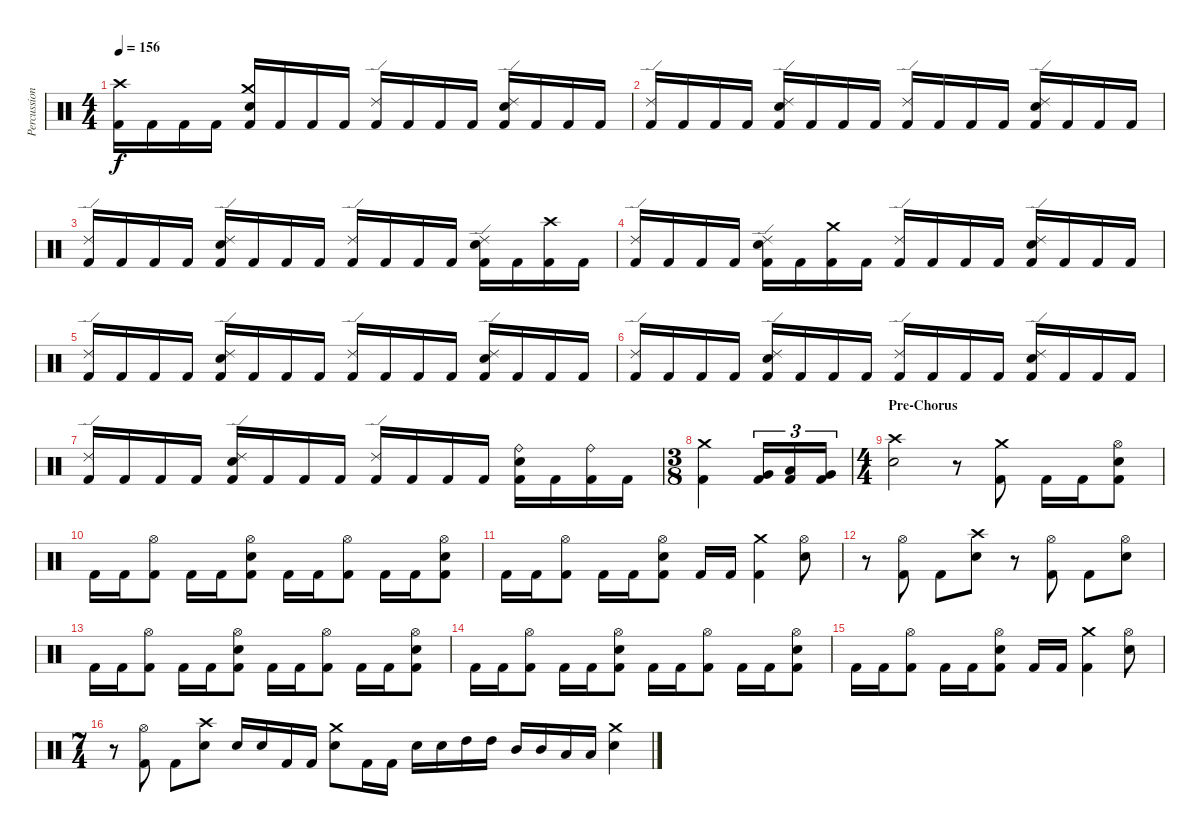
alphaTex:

\track ("Percussion" "Percussion") {instrument percussion}
\staff {score}
\articulation defaults
\ts (4 4)
\tempo 156
\clef neutral
\ks c
("Crash high (hit)" "Kick (hit) 2").16{dy f} "Kick (hit) 2".16 "Kick (hit) 2".16 "Kick (hit) 2".16 ("Crash medium (hit)" "Electric Snare (hit)" "Kick (hit) 2").16 "Kick (hit) 2".16 "Kick (hit) 2".16 "Kick (hit) 2".16 ("Ride (edge) 2" "Kick (hit) 2").16 "Kick (hit) 2".16 "Kick (hit) 2".16 "Kick (hit) 2".16 ("Ride (edge) 2" "Electric Snare (hit)" "Kick (hit) 2").16 "Kick (hit) 2".16 "Kick (hit) 2".16 "Kick (hit) 2".16 |
("Ride (edge) 2" "Kick (hit) 2").16 "Kick (hit) 2".16 "Kick (hit) 2".16 "Kick (hit) 2".16 ("Ride (edge) 2" "Electric Snare (hit)" "Kick (hit) 2").16 "Kick (hit) 2".16 "Kick (hit) 2".16 "Kick (hit) 2".16 ("Ride (edge) 2" "Kick (hit) 2").16 "Kick (hit) 2".16 "Kick (hit) 2".16 "Kick (hit) 2".16 ("Ride (edge) 2" "Electric Snare (hit)" "Kick (hit) 2").16 "Kick (hit) 2".16 "Kick (hit) 2".16 "Kick (hit) 2".16 |
("Ride (edge) 2" "Kick (hit) 2").16 "Kick (hit) 2".16 "Kick (hit) 2".16 "Kick (hit) 2".16 ("Ride (edge) 2" "Electric Snare (hit)" "Kick (hit) 2").16 "Kick (hit) 2".16 "Kick (hit) 2".16 "Kick (hit) 2".16 ("Ride (edge) 2" "Kick (hit) 2").16 "Kick (hit) 2".16 "Kick (hit) 2".16 "Kick (hit) 2".16 ("Ride (edge) 2" "Electric Snare (hit)" "Kick (hit) 2").16 "Kick (hit) 2".16 ("Crash high (hit)" "Kick (hit) 2").16 "Kick (hit) 2".16 |
("Ride (edge) 2" "Kick (hit) 2").16 "Kick (hit) 2".16 "Kick (hit) 2".16 "Kick (hit) 2".16 ("Ride (edge) 2" "Electric Snare (hit)" "Kick (hit) 2").16 "Kick (hit) 2".16 ("Crash medium (hit)" "Kick (hit) 2").16 "Kick (hit) 2".16 ("Ride (edge) 2" "Kick (hit) 2").16 "Kick (hit) 2".16 "Kick (hit) 2".16 "Kick (hit) 2".16 ("Ride (edge) 2" "Electric Snare (hit)" "Kick (hit) 2").16 "Kick (hit) 2".16 "Kick (hit) 2".16 "Kick (hit) 2".16 |
("Ride (edge) 2" "Kick (hit) 2").16 "Kick (hit) 2".16 "Kick (hit) 2".16 "Kick (hit) 2".16 ("Ride (edge) 2" "Electric Snare (hit)" "Kick (hit) 2").16 "Kick (hit) 2".16 "Kick (hit) 2".16 "Kick (hit) 2".16 ("Ride (edge) 2" "Kick (hit) 2").16 "Kick (hit) 2".16 "Kick (hit) 2".16 "Kick (hit) 2".16 ("Ride (edge) 2" "Electric Snare (hit)" "Kick (hit) 2").16 "Kick (hit) 2".16 "Kick (hit) 2".16 "Kick (hit) 2".16 |
("Ride (edge) 2" "Kick (hit) 2").16 "Kick (hit) 2".16 "Kick (hit) 2".16 "Kick (hit) 2".16 ("Ride (edge) 2" "Electric Snare (hit)" "Kick (hit) 2").16 "Kick (hit) 2".16 "Kick (hit) 2".16 "Kick (hit) 2".16 ("Ride (edge) 2" "Kick (hit) 2").16 "Kick (hit) 2".16 "Kick (hit) 2".16 "Kick (hit) 2".16 ("Ride (edge) 2" "Electric Snare (hit)" "Kick (hit) 2").16 "Kick (hit) 2".16 "Kick (hit) 2".16 "Kick (hit) 2".16 |
("Ride (edge) 2" "Kick (hit) 2").16 "Kick (hit) 2".16 "Kick (hit) 2".16 "Kick (hit) 2".16 ("Ride (edge) 2" "Electric Snare (hit)" "Kick (hit) 2").16 "Kick (hit) 2".16 "Kick (hit) 2".16 "Kick (hit) 2".16 ("Ride (edge) 2" "Kick (hit) 2").16 "Kick (hit) 2".16 "Kick (hit) 2".16 "Kick (hit) 2".16 ("Ride (bell)" "Electric Snare (hit)" "Kick (hit) 2").16 "Kick (hit) 2".16 ("Ride (bell)" "Kick (hit) 2").16 "Kick (hit) 2".16 |
\ts (3 8)
("Crash medium (hit)" "Kick (hit) 2").4 ("Very Low Tom (hit)" "Kick (hit) 2").16{tu (3 2)} ("Low Floor Tom (hit)" "Kick (hit) 2").16{tu (3 2)} ("Very Low Tom (hit)" "Kick (hit) 2").16{tu (3 2)} |
\ts (4 4)
\section ("" "Pre-Chorus")
("Crash high (hit)" "Electric Snare (hit)").2 r.8 ("Crash medium (hit)" "Kick (hit) 2").8 "Kick (hit) 2".16 "Kick (hit) 2".16 ("Hi-Hat (open)" "Electric Snare (hit)" "Kick (hit) 2").8 |
"Kick (hit) 2".16 "Kick (hit) 2".16 ("Hi-Hat (open)" "Kick (hit) 2").8 "Kick (hit) 2".16 "Kick (hit) 2".16 ("Hi-Hat (open)" "Electric Snare (hit)" "Kick (hit) 2").8 "Kick (hit) 2".16 "Kick (hit) 2".16 ("Hi-Hat (open)" "Kick (hit) 2").8 "Kick (hit) 2".16 "Kick (hit) 2".16 ("Hi-Hat (open)" "Electric Snare (hit)" "Kick (hit) 2").8 |
"Kick (hit) 2".16 "Kick (hit) 2".16 ("Hi-Hat (open)" "Kick (hit) 2").8 "Kick (hit) 2".16 "Kick (hit) 2".16 ("Hi-Hat (open)" "Electric Snare (hit)" "Kick (hit) 2").8 "Kick (hit) 2".16 "Kick (hit) 2".16 ("Crash medium (hit)" "Kick (hit) 2").4 ("Hi-Hat (open)" "Electric Snare (hit)").8 |
r.8 ("Hi-Hat (open)" "Kick (hit) 2").8 "Kick (hit) 2".8 ("Crash high (hit)" "Electric Snare (hit)").8 r.8 ("Hi-Hat (open)" "Kick (hit) 2").8 "Kick (hit) 2".8 ("Hi-Hat (open)" "Electric Snare (hit)").8 |
"Kick (hit) 2".16 "Kick (hit) 2".16 ("Hi-Hat (open)" "Kick (hit) 2").8 "Kick (hit) 2".16 "Kick (hit) 2".16 ("Hi-Hat (open)" "Electric Snare (hit)" "Kick (hit) 2").8 "Kick (hit) 2".16 "Kick (hit) 2".16 ("Hi-Hat (open)" "Kick (hit) 2").8 "Kick (hit) 2".16 "Kick (hit) 2".16 ("Hi-Hat (open)" "Electric Snare (hit)" "Kick (hit) 2").8 |
"Kick (hit) 2".16 "Kick (hit) 2".16 ("Hi-Hat (open)" "Kick (hit) 2").8 "Kick (hit) 2".16 "Kick (hit) 2".16 ("Hi-Hat (open)" "Electric Snare (hit)" "Kick (hit) 2").8 "Kick (hit) 2".16 "Kick (hit) 2".16 ("Hi-Hat (open)" "Kick (hit) 2").8 "Kick (hit) 2".16 "Kick (hit) 2".16 ("Hi-Hat (open)" "Electric Snare (hit)" "Kick (hit) 2").8 |
"Kick (hit) 2".16 "Kick (hit) 2".16 ("Hi-Hat (open)" "Kick (hit) 2").8 "Kick (hit) 2".16 "Kick (hit) 2".16 ("Hi-Hat (open)" "Electric Snare (hit)" "Kick (hit) 2").8 "Kick (hit) 2".16 "Kick (hit) 2".16 ("Crash medium (hit)" "Kick (hit) 2").4 ("Hi-Hat (open)" "Electric Snare (hit)").8 |
\ts (7 4)
r.8 ("Hi-Hat (open)" "Kick (hit) 2").8 "Kick (hit) 2".8 ("Crash high (hit)" "Electric Snare (hit)").8 "Electric Snare (hit)".16 "Electric Snare (hit)".16 "Kick (hit) 2".16 "Kick (hit) 2".16 ("Crash medium (hit)" "Electric Snare (hit)").8 "Kick (hit) 2".16 "Kick (hit) 2".16 "Electric Snare (hit)".16 "Electric Snare (hit)".16 "High Tom (hit)".16 "High Tom (hit)".16 "Mid Tom (hit)".16 "Mid Tom (hit)".16 "Low Tom (hit)".16 "Low Tom (hit)".16 ("Crash medium (hit)" "Electric Snare (hit)").4
